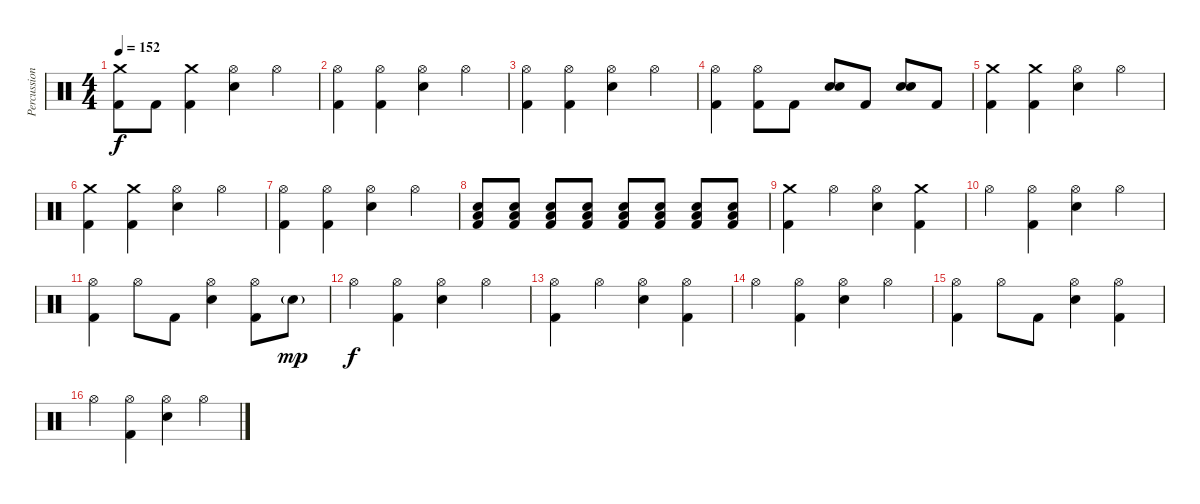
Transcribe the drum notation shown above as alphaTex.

\track ("Percussion" "Percussion") {instrument percussion}
\staff {score}
\articulation defaults
\ts (4 4)
\tempo 152
\clef neutral
\ks c
("Crash medium (hit)" "Kick (hit) 2").8{dy f} "Kick (hit) 2".8 ("Crash medium (hit)" "Kick (hit) 2").4 ("Hi-Hat (open)" "Electric Snare (hit)").4 "Hi-Hat (open)".4 |
("Hi-Hat (open)" "Kick (hit) 2").4 ("Hi-Hat (open)" "Kick (hit) 2").4 ("Hi-Hat (open)" "Electric Snare (hit)").4 "Hi-Hat (open)".4 |
("Hi-Hat (open)" "Kick (hit) 2").4 ("Hi-Hat (open)" "Kick (hit) 2").4 ("Hi-Hat (open)" "Electric Snare (hit)").4 "Hi-Hat (open)".4 |
("Hi-Hat (open)" "Kick (hit) 2").4 ("Hi-Hat (open)" "Kick (hit) 2").8 "Kick (hit) 2".8 ("Electric Snare (hit)" "Electric Snare (hit)").8 "Kick (hit) 2".8 ("Electric Snare (hit)" "Electric Snare (hit)").8 "Kick (hit) 2".8 |
("Crash medium (hit)" "Kick (hit) 2").4 ("Crash medium (hit)" "Kick (hit) 2").4 ("Hi-Hat (open)" "Electric Snare (hit)").4 "Hi-Hat (open)".4 |
("Crash medium (hit)" "Kick (hit) 2").4 ("Crash medium (hit)" "Kick (hit) 2").4 ("Hi-Hat (open)" "Electric Snare (hit)").4 "Hi-Hat (open)".4 |
("Hi-Hat (open)" "Kick (hit) 2").4 ("Hi-Hat (open)" "Kick (hit) 2").4 ("Hi-Hat (open)" "Electric Snare (hit)").4 "Hi-Hat (open)".4 |
("Low Floor Tom (hit)" "Electric Snare (hit)" "Kick (hit) 2").8 ("Low Floor Tom (hit)" "Electric Snare (hit)" "Kick (hit) 2").8 ("Low Floor Tom (hit)" "Electric Snare (hit)" "Kick (hit) 2").8 ("Low Floor Tom (hit)" "Electric Snare (hit)" "Kick (hit) 2").8 ("Low Floor Tom (hit)" "Electric Snare (hit)" "Kick (hit) 2").8 ("Low Floor Tom (hit)" "Electric Snare (hit)" "Kick (hit) 2").8 ("Low Floor Tom (hit)" "Electric Snare (hit)" "Kick (hit) 2").8 ("Low Floor Tom (hit)" "Electric Snare (hit)" "Kick (hit) 2").8 |
("Crash medium (hit)" "Kick (hit) 2").4 "Hi-Hat (open)".4 ("Hi-Hat (open)" "Electric Snare (hit)").4 ("Crash medium (hit)" "Kick (hit) 2").4 |
"Hi-Hat (open)".4 ("Hi-Hat (open)" "Kick (hit) 2").4 ("Hi-Hat (open)" "Electric Snare (hit)").4 "Hi-Hat (open)".4 |
("Hi-Hat (open)" "Kick (hit) 2").4 "Hi-Hat (open)".8 "Kick (hit) 2".8 ("Hi-Hat (open)" "Electric Snare (hit)").4 ("Hi-Hat (open)" "Kick (hit) 2").8 "Electric Snare (hit)"{g}.8{dy mp} |
"Hi-Hat (open)".4{dy f} ("Hi-Hat (open)" "Kick (hit) 2").4 ("Hi-Hat (open)" "Electric Snare (hit)").4 "Hi-Hat (open)".4 |
("Hi-Hat (open)" "Kick (hit) 2").4 "Hi-Hat (open)".4 ("Hi-Hat (open)" "Electric Snare (hit)").4 ("Hi-Hat (open)" "Kick (hit) 2").4 |
"Hi-Hat (open)".4 ("Hi-Hat (open)" "Kick (hit) 2").4 ("Hi-Hat (open)" "Electric Snare (hit)").4 "Hi-Hat (open)".4 |
("Hi-Hat (open)" "Kick (hit) 2").4 "Hi-Hat (open)".8 "Kick (hit) 2".8 ("Hi-Hat (open)" "Electric Snare (hit)").4 ("Hi-Hat (open)" "Kick (hit) 2").4 |
"Hi-Hat (open)".4 ("Hi-Hat (open)" "Kick (hit) 2").4 ("Hi-Hat (open)" "Electric Snare (hit)").4 "Hi-Hat (open)".4
